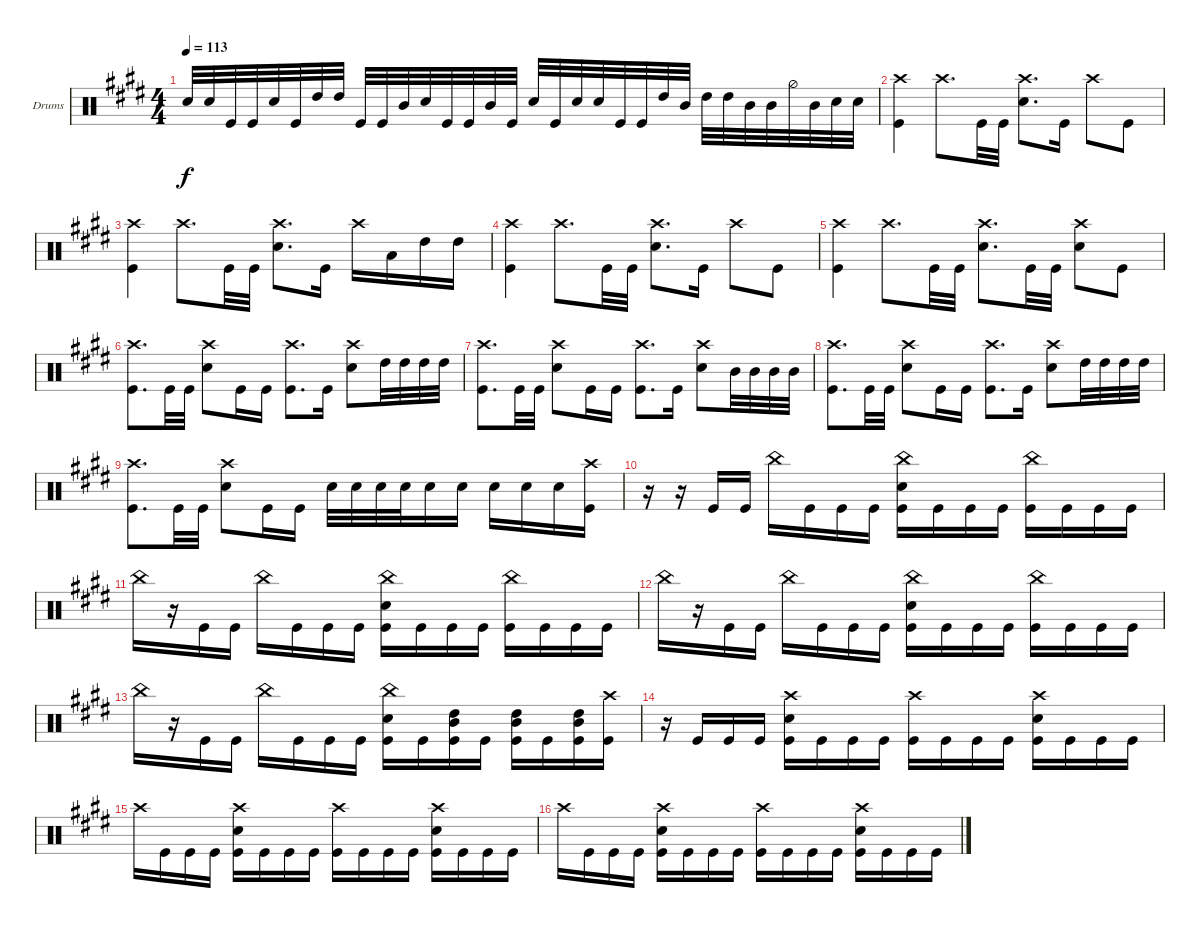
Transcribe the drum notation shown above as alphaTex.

\bracketExtendMode groupsimilarinstruments
\firstSystemTrackNameOrientation horizontal
\otherSystemsTrackNameOrientation horizontal
\track ("Drumkit" "Drums") {instrument percussion}
\staff {score}
\articulation defaults
\ts (4 4)
\tempo 113
\clef neutral
\ks e "Snare (hit) 2".32{dy f} "Snare (hit) 2".32 "Kick (hit)".32 "Kick (hit)".32 "Snare (hit) 2".32 "Kick (hit)".32 "High Tom (hit)".32 "High Tom (hit)".32 "Kick (hit)".32 "Kick (hit)".32 "Mid Tom (hit)".32 "Snare (hit) 2".32 "Kick (hit)".32 "Kick (hit)".32 "Mid Tom (hit)".32 "Kick (hit)".32 "Snare (hit) 2".32 "Kick (hit)".32 "Snare (hit) 2".32 "Snare (hit) 2".32 "Kick (hit)".32 "Kick (hit)".32 "High Tom (hit)".32 "Mid Tom (hit)".32 "High Tom (hit)".32 "High Tom (hit)".32 "Mid Tom (hit)".32 "Mid Tom (hit)".32 "Hi-Hat (half)".32 "Mid Tom (hit)".32 "Snare (hit) 2".32 "Snare (hit) 2".32
|
("Kick (hit)" "Crash high (hit)").4 "Crash high (hit)".8{d} "Kick (hit)".32 "Kick (hit)".32 ("Snare (hit) 2" "Crash high (hit)").8{d} "Kick (hit)".16 "Crash high (hit)".8 "Kick (hit)".8 |
("Kick (hit)" "Crash high (hit)").4 "Crash high (hit)".8{d} "Kick (hit)".32 "Kick (hit)".32 ("Snare (hit) 2" "Crash high (hit)").8{d} "Kick (hit)".16 "Crash high (hit)".16 "Low Tom (hit)".16 "High Tom (hit)".16 "High Tom (hit)".16 |
("Kick (hit)" "Crash high (hit)").4 "Crash high (hit)".8{d} "Kick (hit)".32 "Kick (hit)".32 ("Snare (hit) 2" "Crash high (hit)").8{d} "Kick (hit)".16 "Crash high (hit)".8 "Kick (hit)".8 |
("Kick (hit)" "Crash high (hit)").4 "Crash high (hit)".8{d} "Kick (hit)".32 "Kick (hit)".32 ("Snare (hit) 2" "Crash high (hit)").8{d} "Kick (hit)".32 "Kick (hit)".32 ("Snare (hit) 2" "Crash high (hit)").8 "Kick (hit)".8 |
("Kick (hit)" "Crash high (hit)").8{d} "Kick (hit)".32 "Kick (hit)".32 ("Snare (hit) 2" "Crash high (hit)").8 "Kick (hit)".16 "Kick (hit)".16 ("Kick (hit)" "Crash high (hit)").8{d} "Kick (hit)".16 ("Snare (hit) 2" "Crash high (hit)").8 "High Tom (hit)".32 "High Tom (hit)".32 "High Tom (hit)".32 "High Tom (hit)".32 |
("Kick (hit)" "Crash high (hit)").8{d} "Kick (hit)".32 "Kick (hit)".32 ("Snare (hit) 2" "Crash high (hit)").8 "Kick (hit)".16 "Kick (hit)".16 ("Kick (hit)" "Crash high (hit)").8{d} "Kick (hit)".16 ("Snare (hit) 2" "Crash high (hit)").8 "Mid Tom (hit)".32 "Mid Tom (hit)".32 "Mid Tom (hit)".32 "Mid Tom (hit)".32 |
("Kick (hit)" "Crash high (hit)").8{d} "Kick (hit)".32 "Kick (hit)".32 ("Snare (hit) 2" "Crash high (hit)").8 "Kick (hit)".16 "Kick (hit)".16 ("Kick (hit)" "Crash high (hit)").8{d} "Kick (hit)".16 ("Snare (hit) 2" "Crash high (hit)").8 "High Tom (hit)".32 "High Tom (hit)".32 "High Tom (hit)".32 "High Tom (hit)".32 |
("Kick (hit)" "Crash high (hit)").8{d} "Kick (hit)".32 "Kick (hit)".32 ("Snare (hit) 2" "Crash high (hit)").8 "Kick (hit)".16 "Kick (hit)".16 "Snare (hit) 2".32 "Snare (hit) 2".32 "Snare (hit) 2".32 "Snare (hit) 2".32 "Snare (hit) 2".16 "Snare (hit) 2".16 "Snare (hit) 2".16 "Snare (hit) 2".16 "Snare (hit) 2".16 ("Kick (hit)" "Crash high (hit)").16 |
r.16 r.16 "Kick (hit)".16 "Kick (hit)".16 "China (hit)".16 "Kick (hit)".16 "Kick (hit)".16 "Kick (hit)".16 ("Kick (hit)" "Snare (hit) 2" "China (hit)").16 "Kick (hit)".16 "Kick (hit)".16 "Kick (hit)".16 ("Kick (hit)" "China (hit)").16 "Kick (hit)".16 "Kick (hit)".16 "Kick (hit)".16 |
"China (hit)".16 r.16 "Kick (hit)".16 "Kick (hit)".16 "China (hit)".16 "Kick (hit)".16 "Kick (hit)".16 "Kick (hit)".16 ("Kick (hit)" "Snare (hit) 2" "China (hit)").16 "Kick (hit)".16 "Kick (hit)".16 "Kick (hit)".16 ("Kick (hit)" "China (hit)").16 "Kick (hit)".16 "Kick (hit)".16 "Kick (hit)".16 |
"China (hit)".16 r.16 "Kick (hit)".16 "Kick (hit)".16 "China (hit)".16 "Kick (hit)".16 "Kick (hit)".16 "Kick (hit)".16 ("Kick (hit)" "Snare (hit) 2" "China (hit)").16 "Kick (hit)".16 "Kick (hit)".16 "Kick (hit)".16 ("Kick (hit)" "China (hit)").16 "Kick (hit)".16 "Kick (hit)".16 "Kick (hit)".16 |
"China (hit)".16 r.16 "Kick (hit)".16 "Kick (hit)".16 "China (hit)".16 "Kick (hit)".16 "Kick (hit)".16 "Kick (hit)".16 ("Kick (hit)" "Snare (hit) 2" "China (hit)").16 "Kick (hit)".16 ("Kick (hit)" "High Tom (hit)" "Mid Tom (hit)").16 "Kick (hit)".16 ("Kick (hit)" "High Tom (hit)" "Mid Tom (hit)").16 "Kick (hit)".16 ("Kick (hit)" "High Tom (hit)" "Mid Tom (hit)").16 ("Kick (hit)" "Crash high (hit)").16 |
r.16 "Kick (hit)".16 "Kick (hit)".16 "Kick (hit)".16 ("Snare (hit) 2" "Kick (hit)" "Crash high (hit)").16 "Kick (hit)".16 "Kick (hit)".16 "Kick (hit)".16 ("Kick (hit)" "Crash high (hit)").16 "Kick (hit)".16 "Kick (hit)".16 "Kick (hit)".16 ("Kick (hit)" "Crash high (hit)" "Snare (hit) 2").16 "Kick (hit)".16 "Kick (hit)".16 "Kick (hit)".16 |
"Crash high (hit)".16 "Kick (hit)".16 "Kick (hit)".16 "Kick (hit)".16 ("Snare (hit) 2" "Kick (hit)" "Crash high (hit)").16 "Kick (hit)".16 "Kick (hit)".16 "Kick (hit)".16 ("Kick (hit)" "Crash high (hit)").16 "Kick (hit)".16 "Kick (hit)".16 "Kick (hit)".16 ("Kick (hit)" "Crash high (hit)" "Snare (hit) 2").16 "Kick (hit)".16 "Kick (hit)".16 "Kick (hit)".16 |
"Crash high (hit)".16 "Kick (hit)".16 "Kick (hit)".16 "Kick (hit)".16 ("Snare (hit) 2" "Kick (hit)" "Crash high (hit)").16 "Kick (hit)".16 "Kick (hit)".16 "Kick (hit)".16 ("Kick (hit)" "Crash high (hit)").16 "Kick (hit)".16 "Kick (hit)".16 "Kick (hit)".16 ("Kick (hit)" "Crash high (hit)" "Snare (hit) 2").16 "Kick (hit)".16 "Kick (hit)".16 "Kick (hit)".16
